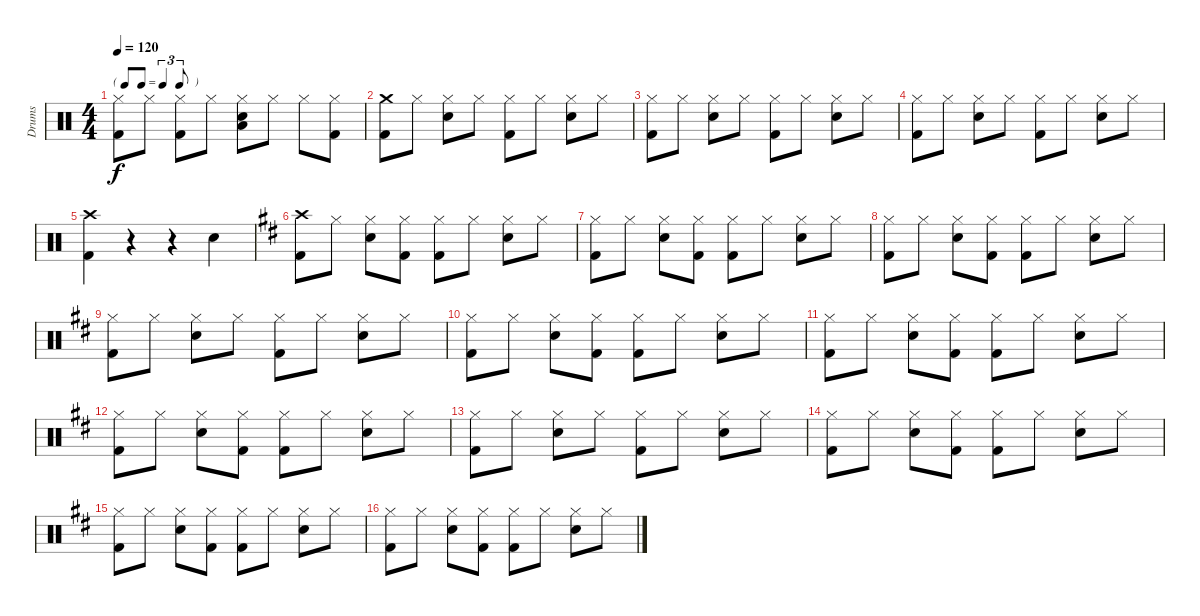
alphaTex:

\track ("Drums" "Drums") {instrument percussion}
\staff {score}
\articulation defaults
\ts (4 4)
\tf triplet8th
\tempo 120
\clef neutral
\ks c
("Kick (hit) 2" "Hi-Hat (closed)").8{dy f} "Hi-Hat (closed)".8 ("Kick (hit) 2" "Hi-Hat (closed)").8 "Hi-Hat (closed)".8 ("Snare (hit) 2" "Hi-Hat (closed)" "Low Tom (hit)").8 "Hi-Hat (closed)".8 "Hi-Hat (closed)".8 ("Kick (hit) 2" "Hi-Hat (closed)").8 |
("Kick (hit) 2" "Crash medium (hit)").8 "Hi-Hat (closed)".8 ("Snare (hit) 2" "Hi-Hat (closed)").8 "Hi-Hat (closed)".8 ("Kick (hit) 2" "Hi-Hat (closed)").8 "Hi-Hat (closed)".8 ("Snare (hit) 2" "Hi-Hat (closed)").8 "Hi-Hat (closed)".8 |
("Kick (hit) 2" "Hi-Hat (closed)").8 "Hi-Hat (closed)".8 ("Snare (hit) 2" "Hi-Hat (closed)").8 "Hi-Hat (closed)".8 ("Kick (hit) 2" "Hi-Hat (closed)").8 "Hi-Hat (closed)".8 ("Snare (hit) 2" "Hi-Hat (closed)").8 "Hi-Hat (closed)".8 |
("Kick (hit) 2" "Hi-Hat (closed)").8 "Hi-Hat (closed)".8 ("Snare (hit) 2" "Hi-Hat (closed)").8 "Hi-Hat (closed)".8 ("Kick (hit) 2" "Hi-Hat (closed)").8 "Hi-Hat (closed)".8 ("Snare (hit) 2" "Hi-Hat (closed)").8 "Hi-Hat (closed)".8 |
("Kick (hit) 2" "Crash high (hit)").4 r.4 r.4 "Snare (hit) 2".4 |
\ks d
("Kick (hit) 2" "Crash high (hit)").8 "Hi-Hat (closed)".8 ("Snare (hit) 2" "Hi-Hat (closed)").8 ("Kick (hit) 2" "Hi-Hat (closed)").8 ("Kick (hit) 2" "Hi-Hat (closed)").8 "Hi-Hat (closed)".8 ("Snare (hit) 2" "Hi-Hat (closed)").8 "Hi-Hat (closed)".8 |
("Kick (hit) 2" "Hi-Hat (closed)").8 "Hi-Hat (closed)".8 ("Snare (hit) 2" "Hi-Hat (closed)").8 ("Kick (hit) 2" "Hi-Hat (closed)").8 ("Kick (hit) 2" "Hi-Hat (closed)").8 "Hi-Hat (closed)".8 ("Snare (hit) 2" "Hi-Hat (closed)").8 "Hi-Hat (closed)".8 |
("Kick (hit) 2" "Hi-Hat (closed)").8 "Hi-Hat (closed)".8 ("Snare (hit) 2" "Hi-Hat (closed)").8 ("Kick (hit) 2" "Hi-Hat (closed)").8 ("Kick (hit) 2" "Hi-Hat (closed)").8 "Hi-Hat (closed)".8 ("Snare (hit) 2" "Hi-Hat (closed)").8 "Hi-Hat (closed)".8 |
("Kick (hit) 2" "Hi-Hat (closed)").8 "Hi-Hat (closed)".8 ("Snare (hit) 2" "Hi-Hat (closed)").8 "Hi-Hat (closed)".8 ("Kick (hit) 2" "Hi-Hat (closed)").8 "Hi-Hat (closed)".8 ("Snare (hit) 2" "Hi-Hat (closed)").8 "Hi-Hat (closed)".8 |
("Kick (hit) 2" "Hi-Hat (closed)").8 "Hi-Hat (closed)".8 ("Snare (hit) 2" "Hi-Hat (closed)").8 ("Kick (hit) 2" "Hi-Hat (closed)").8 ("Kick (hit) 2" "Hi-Hat (closed)").8 "Hi-Hat (closed)".8 ("Snare (hit) 2" "Hi-Hat (closed)").8 "Hi-Hat (closed)".8 |
("Kick (hit) 2" "Hi-Hat (closed)").8 "Hi-Hat (closed)".8 ("Snare (hit) 2" "Hi-Hat (closed)").8 ("Kick (hit) 2" "Hi-Hat (closed)").8 ("Kick (hit) 2" "Hi-Hat (closed)").8 "Hi-Hat (closed)".8 ("Snare (hit) 2" "Hi-Hat (closed)").8 "Hi-Hat (closed)".8 |
("Kick (hit) 2" "Hi-Hat (closed)").8 "Hi-Hat (closed)".8 ("Snare (hit) 2" "Hi-Hat (closed)").8 ("Kick (hit) 2" "Hi-Hat (closed)").8 ("Kick (hit) 2" "Hi-Hat (closed)").8 "Hi-Hat (closed)".8 ("Snare (hit) 2" "Hi-Hat (closed)").8 "Hi-Hat (closed)".8 |
("Kick (hit) 2" "Hi-Hat (closed)").8 "Hi-Hat (closed)".8 ("Snare (hit) 2" "Hi-Hat (closed)").8 "Hi-Hat (closed)".8 ("Kick (hit) 2" "Hi-Hat (closed)").8 "Hi-Hat (closed)".8 ("Snare (hit) 2" "Hi-Hat (closed)").8 "Hi-Hat (closed)".8 |
("Kick (hit) 2" "Hi-Hat (closed)").8 "Hi-Hat (closed)".8 ("Snare (hit) 2" "Hi-Hat (closed)").8 ("Kick (hit) 2" "Hi-Hat (closed)").8 ("Kick (hit) 2" "Hi-Hat (closed)").8 "Hi-Hat (closed)".8 ("Snare (hit) 2" "Hi-Hat (closed)").8 "Hi-Hat (closed)".8 |
("Kick (hit) 2" "Hi-Hat (closed)").8 "Hi-Hat (closed)".8 ("Snare (hit) 2" "Hi-Hat (closed)").8 ("Kick (hit) 2" "Hi-Hat (closed)").8 ("Kick (hit) 2" "Hi-Hat (closed)").8 "Hi-Hat (closed)".8 ("Snare (hit) 2" "Hi-Hat (closed)").8 "Hi-Hat (closed)".8 |
("Kick (hit) 2" "Hi-Hat (closed)").8 "Hi-Hat (closed)".8 ("Snare (hit) 2" "Hi-Hat (closed)").8 ("Kick (hit) 2" "Hi-Hat (closed)").8 ("Kick (hit) 2" "Hi-Hat (closed)").8 "Hi-Hat (closed)".8 ("Snare (hit) 2" "Hi-Hat (closed)").8 "Hi-Hat (closed)".8
